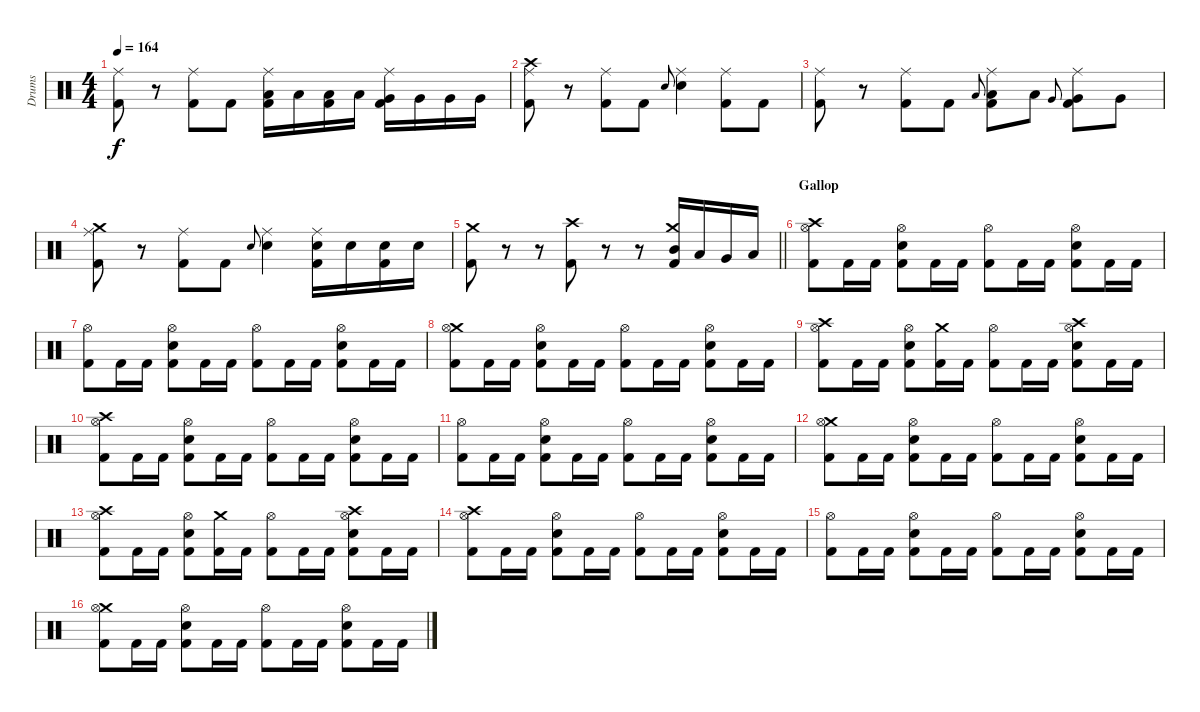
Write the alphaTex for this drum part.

\track ("Drums" "Drums") {instrument percussion}
\staff {score}
\articulation defaults
\ts (4 4)
\tempo 164
\clef neutral
\ks c
("Ride (middle)" "Kick (hit) 2").8{dy f} r.8 ("Ride (middle)" "Kick (hit) 2").8 "Kick (hit) 2".8 ("Ride (middle)" "Low Tom (hit)" "Kick (hit) 2").16 "Low Tom (hit)".16 ("Low Tom (hit)" "Kick (hit) 2").16 "Low Tom (hit)".16 ("Ride (middle)" "Very Low Tom (hit)" "Kick (hit) 2").16 "Very Low Tom (hit)".16 "Very Low Tom (hit)".16 "Very Low Tom (hit)".16 |
("Crash high (hit)" "Ride (middle)" "Kick (hit) 2").8 r.8 ("Ride (middle)" "Kick (hit) 2").8 "Kick (hit) 2".8 "Snare (hit) 2".8{gr onbeat} ("Ride (middle)" "Snare (hit) 2").4 ("Ride (middle)" "Kick (hit) 2").8 "Kick (hit) 2".8 |
("Ride (middle)" "Kick (hit) 2").8 r.8 ("Ride (middle)" "Kick (hit) 2").8 "Kick (hit) 2".8 "Low Tom (hit)".8{gr onbeat} ("Ride (middle)" "Low Tom (hit)" "Kick (hit) 2").8 "Low Tom (hit)".8 "Very Low Tom (hit)".8{gr onbeat} ("Ride (middle)" "Very Low Tom (hit)" "Kick (hit) 2").8 "Very Low Tom (hit)".8 |
("Crash medium (hit)" "Ride (middle)" "Kick (hit) 2").8 r.8 ("Ride (middle)" "Kick (hit) 2").8 "Kick (hit) 2".8 "Snare (hit) 2".8{gr onbeat} ("Ride (middle)" "Snare (hit) 2").4 ("Ride (middle)" "Snare (hit) 2" "Kick (hit) 2").16 "Snare (hit) 2".16 ("Snare (hit) 2" "Kick (hit) 2").16 "Snare (hit) 2".16 |
\barLineRight lightlight
("Crash medium (hit)" "Kick (hit) 2").8 r.8 r.8 ("Crash high (hit)" "Kick (hit) 2").8 r.8 r.8 ("Crash medium (hit)" "Mid Tom (hit)" "Kick (hit) 2").16 "Low Tom (hit)".16 "Very Low Tom (hit)".16 "Low Floor Tom (hit)".16 |
\section ("" "Gallop")
("Crash high (hit)" "Hi-Hat (open)" "Kick (hit) 2").8 "Kick (hit) 2".16 "Kick (hit) 2".16 ("Hi-Hat (open)" "Snare (hit) 2" "Kick (hit) 2").8 "Kick (hit) 2".16 "Kick (hit) 2".16 ("Hi-Hat (open)" "Kick (hit) 2").8 "Kick (hit) 2".16 "Kick (hit) 2".16 ("Hi-Hat (open)" "Snare (hit) 2" "Kick (hit) 2").8 "Kick (hit) 2".16 "Kick (hit) 2".16 |
("Hi-Hat (open)" "Kick (hit) 2").8 "Kick (hit) 2".16 "Kick (hit) 2".16 ("Hi-Hat (open)" "Snare (hit) 2" "Kick (hit) 2").8 "Kick (hit) 2".16 "Kick (hit) 2".16 ("Hi-Hat (open)" "Kick (hit) 2").8 "Kick (hit) 2".16 "Kick (hit) 2".16 ("Hi-Hat (open)" "Snare (hit) 2" "Kick (hit) 2").8 "Kick (hit) 2".16 "Kick (hit) 2".16 |
("Crash medium (hit)" "Hi-Hat (open)" "Kick (hit) 2").8 "Kick (hit) 2".16 "Kick (hit) 2".16 ("Hi-Hat (open)" "Snare (hit) 2" "Kick (hit) 2").8 "Kick (hit) 2".16 "Kick (hit) 2".16 ("Hi-Hat (open)" "Kick (hit) 2").8 "Kick (hit) 2".16 "Kick (hit) 2".16 ("Hi-Hat (open)" "Snare (hit) 2" "Kick (hit) 2").8 "Kick (hit) 2".16 "Kick (hit) 2".16 |
("Crash high (hit)" "Hi-Hat (open)" "Kick (hit) 2").8 "Kick (hit) 2".16 "Kick (hit) 2".16 ("Hi-Hat (open)" "Snare (hit) 2" "Kick (hit) 2").8 ("Crash medium (hit)" "Kick (hit) 2").16 "Kick (hit) 2".16 ("Hi-Hat (open)" "Kick (hit) 2").8 "Kick (hit) 2".16 "Kick (hit) 2".16 ("Crash high (hit)" "Hi-Hat (open)" "Snare (hit) 2" "Kick (hit) 2").8 "Kick (hit) 2".16 "Kick (hit) 2".16 |
("Crash high (hit)" "Hi-Hat (open)" "Kick (hit) 2").8 "Kick (hit) 2".16 "Kick (hit) 2".16 ("Hi-Hat (open)" "Snare (hit) 2" "Kick (hit) 2").8 "Kick (hit) 2".16 "Kick (hit) 2".16 ("Hi-Hat (open)" "Kick (hit) 2").8 "Kick (hit) 2".16 "Kick (hit) 2".16 ("Hi-Hat (open)" "Snare (hit) 2" "Kick (hit) 2").8 "Kick (hit) 2".16 "Kick (hit) 2".16 |
("Hi-Hat (open)" "Kick (hit) 2").8 "Kick (hit) 2".16 "Kick (hit) 2".16 ("Hi-Hat (open)" "Snare (hit) 2" "Kick (hit) 2").8 "Kick (hit) 2".16 "Kick (hit) 2".16 ("Hi-Hat (open)" "Kick (hit) 2").8 "Kick (hit) 2".16 "Kick (hit) 2".16 ("Hi-Hat (open)" "Snare (hit) 2" "Kick (hit) 2").8 "Kick (hit) 2".16 "Kick (hit) 2".16 |
("Crash medium (hit)" "Hi-Hat (open)" "Kick (hit) 2").8 "Kick (hit) 2".16 "Kick (hit) 2".16 ("Hi-Hat (open)" "Snare (hit) 2" "Kick (hit) 2").8 "Kick (hit) 2".16 "Kick (hit) 2".16 ("Hi-Hat (open)" "Kick (hit) 2").8 "Kick (hit) 2".16 "Kick (hit) 2".16 ("Hi-Hat (open)" "Snare (hit) 2" "Kick (hit) 2").8 "Kick (hit) 2".16 "Kick (hit) 2".16 |
("Crash high (hit)" "Hi-Hat (open)" "Kick (hit) 2").8 "Kick (hit) 2".16 "Kick (hit) 2".16 ("Hi-Hat (open)" "Snare (hit) 2" "Kick (hit) 2").8 ("Crash medium (hit)" "Kick (hit) 2").16 "Kick (hit) 2".16 ("Hi-Hat (open)" "Kick (hit) 2").8 "Kick (hit) 2".16 "Kick (hit) 2".16 ("Crash high (hit)" "Hi-Hat (open)" "Snare (hit) 2" "Kick (hit) 2").8 "Kick (hit) 2".16 "Kick (hit) 2".16 |
("Crash high (hit)" "Hi-Hat (open)" "Kick (hit) 2").8 "Kick (hit) 2".16 "Kick (hit) 2".16 ("Hi-Hat (open)" "Snare (hit) 2" "Kick (hit) 2").8 "Kick (hit) 2".16 "Kick (hit) 2".16 ("Hi-Hat (open)" "Kick (hit) 2").8 "Kick (hit) 2".16 "Kick (hit) 2".16 ("Hi-Hat (open)" "Snare (hit) 2" "Kick (hit) 2").8 "Kick (hit) 2".16 "Kick (hit) 2".16 |
("Hi-Hat (open)" "Kick (hit) 2").8 "Kick (hit) 2".16 "Kick (hit) 2".16 ("Hi-Hat (open)" "Snare (hit) 2" "Kick (hit) 2").8 "Kick (hit) 2".16 "Kick (hit) 2".16 ("Hi-Hat (open)" "Kick (hit) 2").8 "Kick (hit) 2".16 "Kick (hit) 2".16 ("Hi-Hat (open)" "Snare (hit) 2" "Kick (hit) 2").8 "Kick (hit) 2".16 "Kick (hit) 2".16 |
("Crash medium (hit)" "Hi-Hat (open)" "Kick (hit) 2").8 "Kick (hit) 2".16 "Kick (hit) 2".16 ("Hi-Hat (open)" "Snare (hit) 2" "Kick (hit) 2").8 "Kick (hit) 2".16 "Kick (hit) 2".16 ("Hi-Hat (open)" "Kick (hit) 2").8 "Kick (hit) 2".16 "Kick (hit) 2".16 ("Hi-Hat (open)" "Snare (hit) 2" "Kick (hit) 2").8 "Kick (hit) 2".16 "Kick (hit) 2".16
